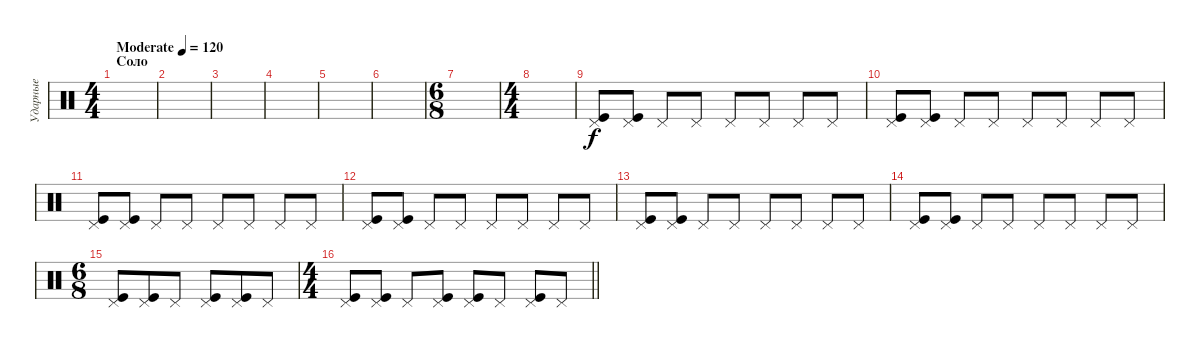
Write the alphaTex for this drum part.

\track ("Ударные" "Ударные") {instrument percussion}
\staff {score}
\articulation defaults
\ts (4 4)
\section ("" "Соло")
\tempo (120 "Moderate")
\clef neutral
\ks c
|
|
|
|
|
|
\ts (6 8)
|
\ts (4 4)
|
("Pedal Hi-Hat (hit)" "Kick (hit)").8 ("Pedal Hi-Hat (hit)" "Kick (hit)").8 "Pedal Hi-Hat (hit)".8 "Pedal Hi-Hat (hit)".8 "Pedal Hi-Hat (hit)".8 "Pedal Hi-Hat (hit)".8 "Pedal Hi-Hat (hit)".8 "Pedal Hi-Hat (hit)".8 |
("Pedal Hi-Hat (hit)" "Kick (hit)").8 ("Pedal Hi-Hat (hit)" "Kick (hit)").8 "Pedal Hi-Hat (hit)".8 "Pedal Hi-Hat (hit)".8 "Pedal Hi-Hat (hit)".8 "Pedal Hi-Hat (hit)".8 "Pedal Hi-Hat (hit)".8 "Pedal Hi-Hat (hit)".8 |
("Pedal Hi-Hat (hit)" "Kick (hit)").8 ("Pedal Hi-Hat (hit)" "Kick (hit)").8 "Pedal Hi-Hat (hit)".8 "Pedal Hi-Hat (hit)".8 "Pedal Hi-Hat (hit)".8 "Pedal Hi-Hat (hit)".8 "Pedal Hi-Hat (hit)".8 "Pedal Hi-Hat (hit)".8 |
("Pedal Hi-Hat (hit)" "Kick (hit)").8 ("Pedal Hi-Hat (hit)" "Kick (hit)").8 "Pedal Hi-Hat (hit)".8 "Pedal Hi-Hat (hit)".8 "Pedal Hi-Hat (hit)".8 "Pedal Hi-Hat (hit)".8 "Pedal Hi-Hat (hit)".8 "Pedal Hi-Hat (hit)".8 |
("Pedal Hi-Hat (hit)" "Kick (hit)").8 ("Pedal Hi-Hat (hit)" "Kick (hit)").8 "Pedal Hi-Hat (hit)".8 "Pedal Hi-Hat (hit)".8 "Pedal Hi-Hat (hit)".8 "Pedal Hi-Hat (hit)".8 "Pedal Hi-Hat (hit)".8 "Pedal Hi-Hat (hit)".8 |
("Pedal Hi-Hat (hit)" "Kick (hit)").8 ("Pedal Hi-Hat (hit)" "Kick (hit)").8 "Pedal Hi-Hat (hit)".8 "Pedal Hi-Hat (hit)".8 "Pedal Hi-Hat (hit)".8 "Pedal Hi-Hat (hit)".8 "Pedal Hi-Hat (hit)".8 "Pedal Hi-Hat (hit)".8 |
\ts (6 8)
("Pedal Hi-Hat (hit)" "Kick (hit)").8 ("Pedal Hi-Hat (hit)" "Kick (hit)").8 "Pedal Hi-Hat (hit)".8 ("Pedal Hi-Hat (hit)" "Kick (hit)").8 ("Pedal Hi-Hat (hit)" "Kick (hit)").8 "Pedal Hi-Hat (hit)".8 |
\ts (4 4)
\barLineRight lightlight
("Pedal Hi-Hat (hit)" "Kick (hit)").8 ("Pedal Hi-Hat (hit)" "Kick (hit)").8 "Pedal Hi-Hat (hit)".8 ("Pedal Hi-Hat (hit)" "Kick (hit)").8 ("Pedal Hi-Hat (hit)" "Kick (hit)").8 "Pedal Hi-Hat (hit)".8 ("Pedal Hi-Hat (hit)" "Kick (hit)").8 "Pedal Hi-Hat (hit)".8
